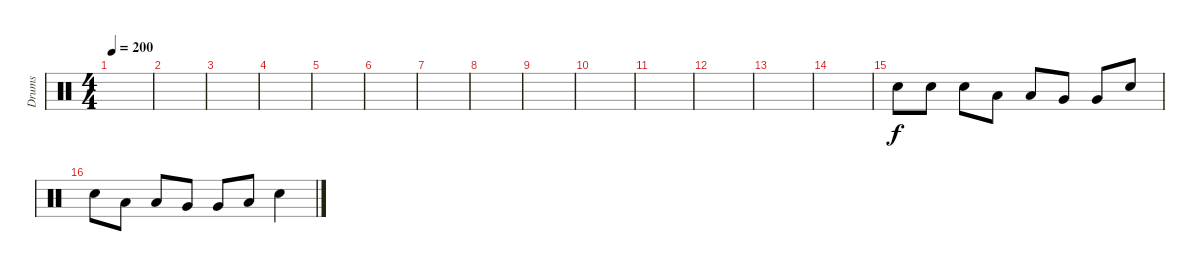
\track ("Drums" "Drums") {instrument percussion}
\staff {score}
\articulation defaults
\ts (4 4)
\tempo 200
\clef neutral
\ks c
|
|
|
|
|
|
|
|
|
|
|
|
|
|
"Electric Snare (hit)".8 "Electric Snare (hit)".8 "Electric Snare (hit)".8 "Low Tom (hit)".8 "Low Tom (hit)".8 "Very Low Tom (hit)".8 "Very Low Tom (hit)".8 "Electric Snare (hit)".8 |
"Electric Snare (hit)".8 "Low Tom (hit)".8 "Low Tom (hit)".8 "Very Low Tom (hit)".8 "Very Low Tom (hit)".8 "Low Floor Tom (hit)".8 "Electric Snare (hit)".4
